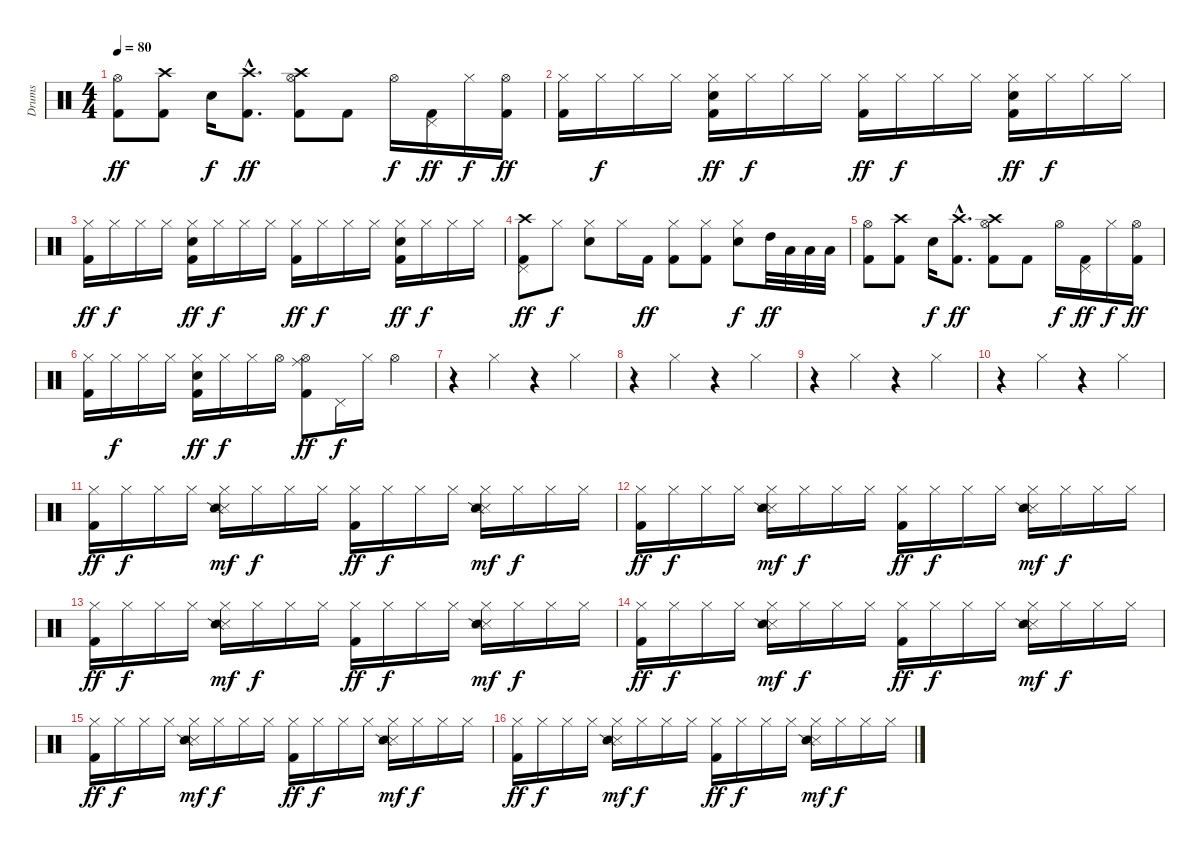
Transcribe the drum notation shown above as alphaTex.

\track ("Drums" "Drums") {instrument percussion}
\staff {score}
\articulation defaults
\ts (4 4)
\tempo 80
\clef neutral
\ks c
("Hi-Hat (open)" "Kick (hit) 2").8{dy ff} ("Crash high (hit)" "Kick (hit) 2").8 "Snare (hit) 2".16{dy f} ("Crash high (hit)"{hac} "Kick (hit) 2"{hac}).8{d dy ff} ("Crash high (hit)" "Hi-Hat (open)" "Kick (hit) 2").8 "Kick (hit) 2".8 "Hi-Hat (open)".16{dy f} ("Pedal Hi-Hat (hit)" "Kick (hit) 2").16{dy ff} "Hi-Hat (closed)".16{dy f} ("Hi-Hat (open)" "Kick (hit) 2").16{dy ff} |
("Hi-Hat (closed)" "Kick (hit) 2").16 "Hi-Hat (closed)".16{dy f} "Hi-Hat (closed)".16 "Hi-Hat (closed)".16 ("Hi-Hat (closed)" "Snare (hit) 2" "Kick (hit) 2").16{dy ff} "Hi-Hat (closed)".16{dy f} "Hi-Hat (closed)".16 "Hi-Hat (closed)".16 ("Hi-Hat (closed)" "Kick (hit) 2").16{dy ff} "Hi-Hat (closed)".16{dy f} "Hi-Hat (closed)".16 "Hi-Hat (closed)".16 ("Hi-Hat (closed)" "Snare (hit) 2" "Kick (hit) 2").16{dy ff} "Hi-Hat (closed)".16{dy f} "Hi-Hat (closed)".16 "Hi-Hat (closed)".16 |
("Hi-Hat (closed)" "Kick (hit) 2").16{dy ff} "Hi-Hat (closed)".16{dy f} "Hi-Hat (closed)".16 "Hi-Hat (closed)".16 ("Hi-Hat (closed)" "Snare (hit) 2" "Kick (hit) 2").16{dy ff} "Hi-Hat (closed)".16{dy f} "Hi-Hat (closed)".16 "Hi-Hat (closed)".16 ("Hi-Hat (closed)" "Kick (hit) 2").16{dy ff} "Hi-Hat (closed)".16{dy f} "Hi-Hat (closed)".16 "Hi-Hat (closed)".16 ("Hi-Hat (closed)" "Snare (hit) 2" "Kick (hit) 2").16{dy ff} "Hi-Hat (closed)".16{dy f} "Hi-Hat (closed)".16 "Hi-Hat (closed)".16 |
("Crash high (hit)" "Pedal Hi-Hat (hit)" "Kick (hit) 2").8{dy ff} "Hi-Hat (closed)".8{dy f} ("Hi-Hat (closed)" "Snare (hit) 2").8 "Hi-Hat (closed)".16 "Kick (hit) 2".16{dy ff} ("Hi-Hat (closed)" "Kick (hit) 2").8 ("Hi-Hat (closed)" "Kick (hit) 2").8 ("Hi-Hat (closed)" "Snare (hit) 2").8{dy f} "High Tom (hit)".32{dy ff} "Low Tom (hit)".32 "Low Tom (hit)".32 "Low Floor Tom (hit)".32 |
("Hi-Hat (open)" "Kick (hit) 2").8 ("Crash high (hit)" "Kick (hit) 2").8 "Snare (hit) 2".16{dy f} ("Crash high (hit)"{hac} "Kick (hit) 2"{hac}).8{d dy ff} ("Crash high (hit)" "Hi-Hat (open)" "Kick (hit) 2").8 "Kick (hit) 2".8 "Hi-Hat (open)".16{dy f} ("Pedal Hi-Hat (hit)" "Kick (hit) 2").16{dy ff} "Hi-Hat (closed)".16{dy f} ("Hi-Hat (open)" "Kick (hit) 2").16{dy ff} |
("Hi-Hat (closed)" "Kick (hit) 2").16 "Hi-Hat (closed)".16{dy f} "Hi-Hat (closed)".16 "Hi-Hat (closed)".16 ("Hi-Hat (closed)" "Snare (hit) 2" "Kick (hit) 2").16{dy ff} "Hi-Hat (closed)".16{dy f} "Hi-Hat (closed)".16 "Hi-Hat (open)".16 ("Ride (middle)" "Hi-Hat (open)" "Kick (hit) 2").8{dy ff} "Pedal Hi-Hat (hit)".16{dy f} "Hi-Hat (closed)".16 "Hi-Hat (open)".4 |
r.4 "Hi-Hat (closed)".4 r.4 "Hi-Hat (closed)".4 |
r.4 "Hi-Hat (closed)".4 r.4 "Hi-Hat (closed)".4 |
r.4 "Hi-Hat (closed)".4 r.4 "Hi-Hat (closed)".4 |
r.4 "Hi-Hat (closed)".4 r.4 "Hi-Hat (closed)".4 |
("Hi-Hat (closed)" "Kick (hit) 2").16{dy ff} "Hi-Hat (closed)".16{dy f} "Hi-Hat (closed)".16 "Hi-Hat (closed)".16 ("Hi-Hat (closed)" "Snare (side stick) 3" "Snare (side stick) 2").16{dy mf} "Hi-Hat (closed)".16{dy f} "Hi-Hat (closed)".16 "Hi-Hat (closed)".16 ("Hi-Hat (closed)" "Kick (hit) 2").16{dy ff} "Hi-Hat (closed)".16{dy f} "Hi-Hat (closed)".16 "Hi-Hat (closed)".16 ("Hi-Hat (closed)" "Snare (side stick) 3" "Snare (side stick) 2").16{dy mf} "Hi-Hat (closed)".16{dy f} "Hi-Hat (closed)".16 "Hi-Hat (closed)".16 |
("Hi-Hat (closed)" "Kick (hit) 2").16{dy ff} "Hi-Hat (closed)".16{dy f} "Hi-Hat (closed)".16 "Hi-Hat (closed)".16 ("Hi-Hat (closed)" "Snare (side stick) 3" "Snare (side stick) 2").16{dy mf} "Hi-Hat (closed)".16{dy f} "Hi-Hat (closed)".16 "Hi-Hat (closed)".16 ("Hi-Hat (closed)" "Kick (hit) 2").16{dy ff} "Hi-Hat (closed)".16{dy f} "Hi-Hat (closed)".16 "Hi-Hat (closed)".16 ("Hi-Hat (closed)" "Snare (side stick) 3" "Snare (side stick) 2").16{dy mf} "Hi-Hat (closed)".16{dy f} "Hi-Hat (closed)".16 "Hi-Hat (closed)".16 |
("Hi-Hat (closed)" "Kick (hit) 2").16{dy ff} "Hi-Hat (closed)".16{dy f} "Hi-Hat (closed)".16 "Hi-Hat (closed)".16 ("Hi-Hat (closed)" "Snare (side stick) 3" "Snare (side stick) 2").16{dy mf} "Hi-Hat (closed)".16{dy f} "Hi-Hat (closed)".16 "Hi-Hat (closed)".16 ("Hi-Hat (closed)" "Kick (hit) 2").16{dy ff} "Hi-Hat (closed)".16{dy f} "Hi-Hat (closed)".16 "Hi-Hat (closed)".16 ("Hi-Hat (closed)" "Snare (side stick) 3" "Snare (side stick) 2").16{dy mf} "Hi-Hat (closed)".16{dy f} "Hi-Hat (closed)".16 "Hi-Hat (closed)".16 |
("Hi-Hat (closed)" "Kick (hit) 2").16{dy ff} "Hi-Hat (closed)".16{dy f} "Hi-Hat (closed)".16 "Hi-Hat (closed)".16 ("Hi-Hat (closed)" "Snare (side stick) 3" "Snare (side stick) 2").16{dy mf} "Hi-Hat (closed)".16{dy f} "Hi-Hat (closed)".16 "Hi-Hat (closed)".16 ("Hi-Hat (closed)" "Kick (hit) 2").16{dy ff} "Hi-Hat (closed)".16{dy f} "Hi-Hat (closed)".16 "Hi-Hat (closed)".16 ("Hi-Hat (closed)" "Snare (side stick) 3" "Snare (side stick) 2").16{dy mf} "Hi-Hat (closed)".16{dy f} "Hi-Hat (closed)".16 "Hi-Hat (closed)".16 |
("Hi-Hat (closed)" "Kick (hit) 2").16{dy ff} "Hi-Hat (closed)".16{dy f} "Hi-Hat (closed)".16 "Hi-Hat (closed)".16 ("Hi-Hat (closed)" "Snare (side stick) 3" "Snare (side stick) 2").16{dy mf} "Hi-Hat (closed)".16{dy f} "Hi-Hat (closed)".16 "Hi-Hat (closed)".16 ("Hi-Hat (closed)" "Kick (hit) 2").16{dy ff} "Hi-Hat (closed)".16{dy f} "Hi-Hat (closed)".16 "Hi-Hat (closed)".16 ("Hi-Hat (closed)" "Snare (side stick) 3" "Snare (side stick) 2").16{dy mf} "Hi-Hat (closed)".16{dy f} "Hi-Hat (closed)".16 "Hi-Hat (closed)".16 |
("Hi-Hat (closed)" "Kick (hit) 2").16{dy ff} "Hi-Hat (closed)".16{dy f} "Hi-Hat (closed)".16 "Hi-Hat (closed)".16 ("Hi-Hat (closed)" "Snare (side stick) 3" "Snare (side stick) 2").16{dy mf} "Hi-Hat (closed)".16{dy f} "Hi-Hat (closed)".16 "Hi-Hat (closed)".16 ("Hi-Hat (closed)" "Kick (hit) 2").16{dy ff} "Hi-Hat (closed)".16{dy f} "Hi-Hat (closed)".16 "Hi-Hat (closed)".16 ("Hi-Hat (closed)" "Snare (side stick) 3" "Snare (side stick) 2").16{dy mf} "Hi-Hat (closed)".16{dy f} "Hi-Hat (closed)".16 "Hi-Hat (closed)".16
